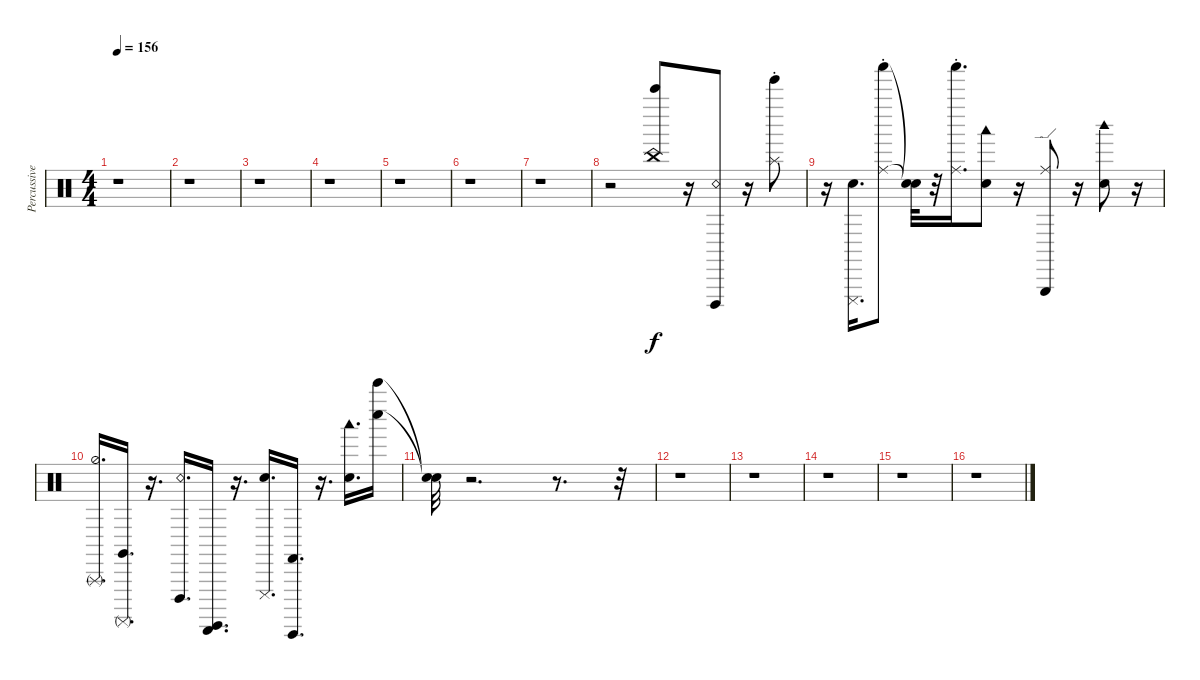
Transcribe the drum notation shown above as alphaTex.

\track ("Percussive Organ" "Percussive") {instrument percussion}
\staff {score}
\articulation defaults
\ts (4 4)
\tempo 156
\clef neutral
\ks c
r.1{dy f} |
r.1 |
r.1 |
r.1 |
r.1 |
r.1 |
r.1 |
r.2 ("Bell Tree (hit)" "China (choke)").8 r.16 ("Cuica (open)" "Snare (rim shot)").8 r.16 ("Tinkle Bell (hit)" "Splash (choke)").8 |
r.16 ("Cuica (mute)" "Snare (hit)").16{d} ("Shaker (hit)" "Ride (choke)").8 ("Snare (hit)"{t} "Snare (hit)"{t}).32 r.32 ("Shaker (hit)" "Ride (choke)").16{d} ("Woodblock low (hit)" "Snare (hit)").8 r.16 ("Triangle (hit)" "Ride (edge)").8 r.16 ("Woodblock high (hit)" "Snare (hit)").8 r.16 |
("Triangle (rnute)" "Hi-Hat (half)").16{d} ("Claves (hit)" "Surdo (mute)").16{d} r.16{d} ("Cuica (open)" "Snare (rim shot)").16{d} ("Guiro (scrap-return)" "Surdo (hit)").16{d} r.16{d} ("Cuica (mute)" "Snare (hit)").16{d} ("Guiro (hit)" "Castanets (hit)").16{d} r.16{d} ("Woodblock low (hit)" "Snare (hit)").16{d} ("Whistle low (hit)" "Bell Tree (hit)").16 |
("Snare (hit)"{t} "Snare (hit)"{t}).32 r.2{d} r.8{d} r.32 |
r.1 |
r.1 |
r.1 |
r.1 |
r.1
